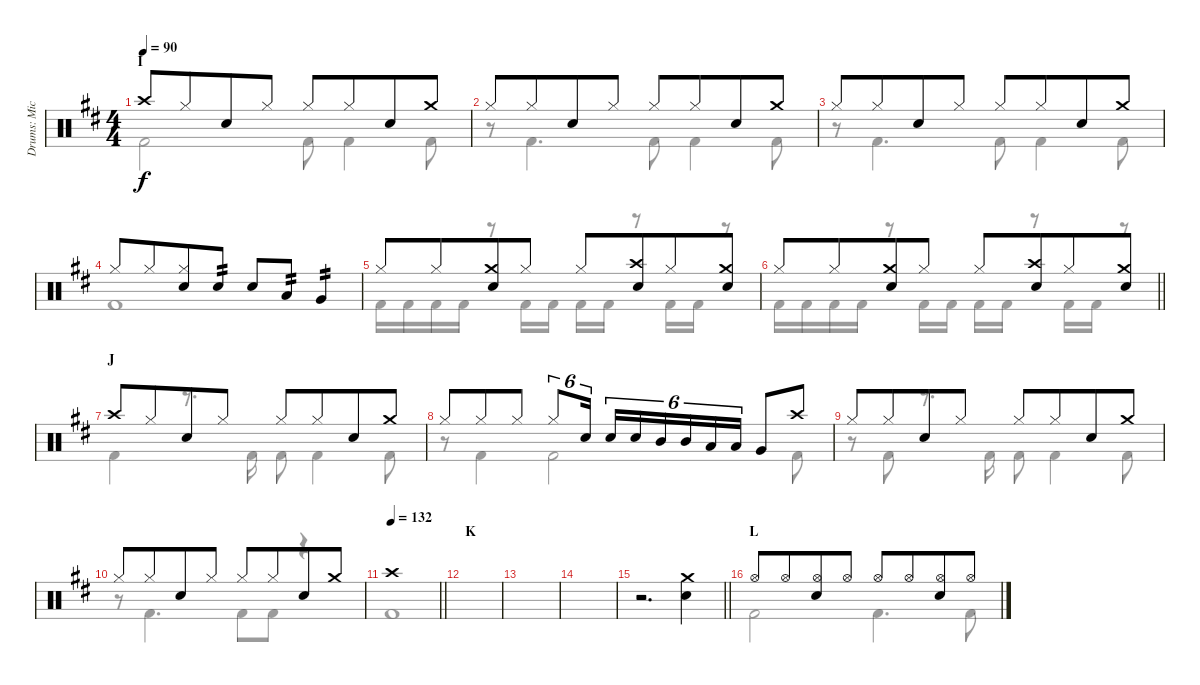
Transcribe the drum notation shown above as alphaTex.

\track ("Drums: Mick" "Drums: Mic") {instrument percussion}
\staff {score}
\articulation defaults
\voice
\ts (4 4)
\section ("" "I")
\tempo 90
\clef neutral
\ks d "Crash high (hit)".8{dy f} "Hi-Hat (closed)".8{beam merge} "Snare (hit) 2".8 "Hi-Hat (closed)".8 "Hi-Hat (closed)".8 "Hi-Hat (closed)".8{beam merge} "Snare (hit) 2".8 "Crash medium (hit)".8
|
"Hi-Hat (closed)".8 "Hi-Hat (closed)".8{beam merge} "Snare (hit) 2".8 "Hi-Hat (closed)".8 "Hi-Hat (closed)".8 "Hi-Hat (closed)".8{beam merge} "Snare (hit) 2".8 "Crash medium (hit)".8 |
"Hi-Hat (closed)".8 "Hi-Hat (closed)".8{beam merge} "Snare (hit) 2".8 "Hi-Hat (closed)".8 "Hi-Hat (closed)".8 "Hi-Hat (closed)".8{beam merge} "Snare (hit) 2".8 "Crash medium (hit)".8 |
"Hi-Hat (closed)".8 "Hi-Hat (closed)".8{beam merge} ("Hi-Hat (closed)" "Snare (hit) 2").8 "Electric Snare (hit)".8{tp 2} "Snare (hit) 2".8 "Low Tom (hit)".8{tp 2} "Very Low Tom (hit)".4{tp 2} |
"Hi-Hat (closed)".8 "Hi-Hat (closed)".8{beam merge} ("Crash medium (hit)" "Snare (hit) 2").8 "Hi-Hat (closed)".8 "Hi-Hat (closed)".8 ("Crash high (hit)" "Snare (hit) 2").8{beam merge} "Hi-Hat (closed)".8 ("Crash medium (hit)" "Snare (hit) 2").8 |
\barLineRight lightlight "Hi-Hat (closed)".8 "Hi-Hat (closed)".8{beam merge}
("Crash medium (hit)" "Snare (hit) 2").8 "Hi-Hat (closed)".8 "Hi-Hat (closed)".8 ("Crash high (hit)" "Snare (hit) 2").8{beam merge} "Hi-Hat (closed)".8 ("Crash medium (hit)" "Snare (hit) 2").8 |
\section ("" "J")
"Crash high (hit)".8 "Hi-Hat (closed)".8{beam merge} "Snare (hit) 2".8 "Hi-Hat (closed)".8 "Hi-Hat (closed)".8 "Hi-Hat (closed)".8{beam merge} "Snare (hit) 2".8 "Crash medium (hit)".8 |
"Hi-Hat (closed)".8 "Hi-Hat (closed)".8{beam merge} "Hi-Hat (closed)".8 "Hi-Hat (closed)".8{tu (6 4)} "Electric Snare (hit)".16{tu (6 4)} "Electric Snare (hit)".16{tu (6 4) beam merge} "Snare (hit) 2".16{tu (6 4)} "Mid Tom (hit)".16{tu (6 4)} "Mid Tom (hit)".16{tu (6 4)} "Low Tom (hit)".16{tu (6 4)} "Low Tom (hit)".16{tu (6 4)} "Very Low Tom (hit)".8 "Crash high (hit)".8 |
"Hi-Hat (closed)".8 "Hi-Hat (closed)".8{beam merge} "Snare (hit) 2".8 "Hi-Hat (closed)".8 "Hi-Hat (closed)".8 "Hi-Hat (closed)".8{beam merge} "Snare (hit) 2".8 "Crash medium (hit)".8 |
"Hi-Hat (closed)".8 "Hi-Hat (closed)".8{beam merge} "Snare (hit) 2".8 "Hi-Hat (closed)".8 "Hi-Hat (closed)".8 "Hi-Hat (closed)".8{beam merge} "Snare (hit) 2".8 "Crash medium (hit)".8 |
\tempo 132
\barLineRight lightlight "Crash high (hit)".1
|
\section ("" "K")
|
|
|
\barLineRight lightlight
r.2{d} ("Crash medium (hit)" "Snare (hit) 2").4 |
\section ("" "L")
"Hi-Hat (open)".8 "Hi-Hat (open)".8{beam merge} ("Hi-Hat (open)" "Snare (hit) 2").8 "Hi-Hat (open)".8 "Hi-Hat (open)".8 "Hi-Hat (open)".8{beam merge} ("Hi-Hat (open)" "Snare (hit) 2").8 "Hi-Hat (open)".8
\voice
\clef neutral
\ottava regular
\simile none
\ks d "Kick (hit) 2".2{dy f} "Kick (hit) 2".8 "Kick (hit) 2".4 "Kick (hit) 2".8
|
r.8 "Kick (hit) 2".4{d} "Kick (hit) 2".8 "Kick (hit) 2".4 "Kick (hit) 2".8 |
r.8 "Kick (hit) 2".4{d} "Kick (hit) 2".8 "Kick (hit) 2".4 "Kick (hit) 2".8 |
"Kick (hit) 2".1 |
"Kick (hit) 2".16 "Kick (hit) 2".16 "Kick (hit) 2".16 "Kick (hit) 2".16 r.8 "Kick (hit) 2".16 "Kick (hit) 2".16 "Kick (hit) 2".16 "Kick (hit) 2".16 r.8 "Kick (hit) 2".16 "Kick (hit) 2".16 r.8 |
\barLineRight lightlight "Kick (hit) 2".16 "Kick (hit) 2".16 "Kick (hit) 2".16 "Kick (hit) 2".16
r.8 "Kick (hit) 2".16 "Kick (hit) 2".16 "Kick (hit) 2".16 "Kick (hit) 2".16 r.8 "Kick (hit) 2".16 "Kick (hit) 2".16 r.8 |
"Kick (hit) 2".4 r.8{d} "Kick (hit) 2".16 "Kick (hit) 2".8 "Kick (hit) 2".4 "Kick (hit) 2".8 |
r.8 "Kick (hit) 2".4 "Kick (hit) 2".2 "Kick (hit) 2".8 |
r.8 "Kick (hit) 2".8 r.8{d} "Kick (hit) 2".16 "Kick (hit) 2".8 "Kick (hit) 2".4 "Kick (hit) 2".8 |
r.8 "Kick (hit) 2".4{d} "Kick (hit) 2".8 "Kick (hit) 2".8 r.4 |
\barLineRight lightlight "Kick (hit) 2".1
|
|
|
|
\barLineRight lightlight
|
"Kick (hit) 2".2 "Kick (hit) 2".4{d} "Kick (hit) 2".8
